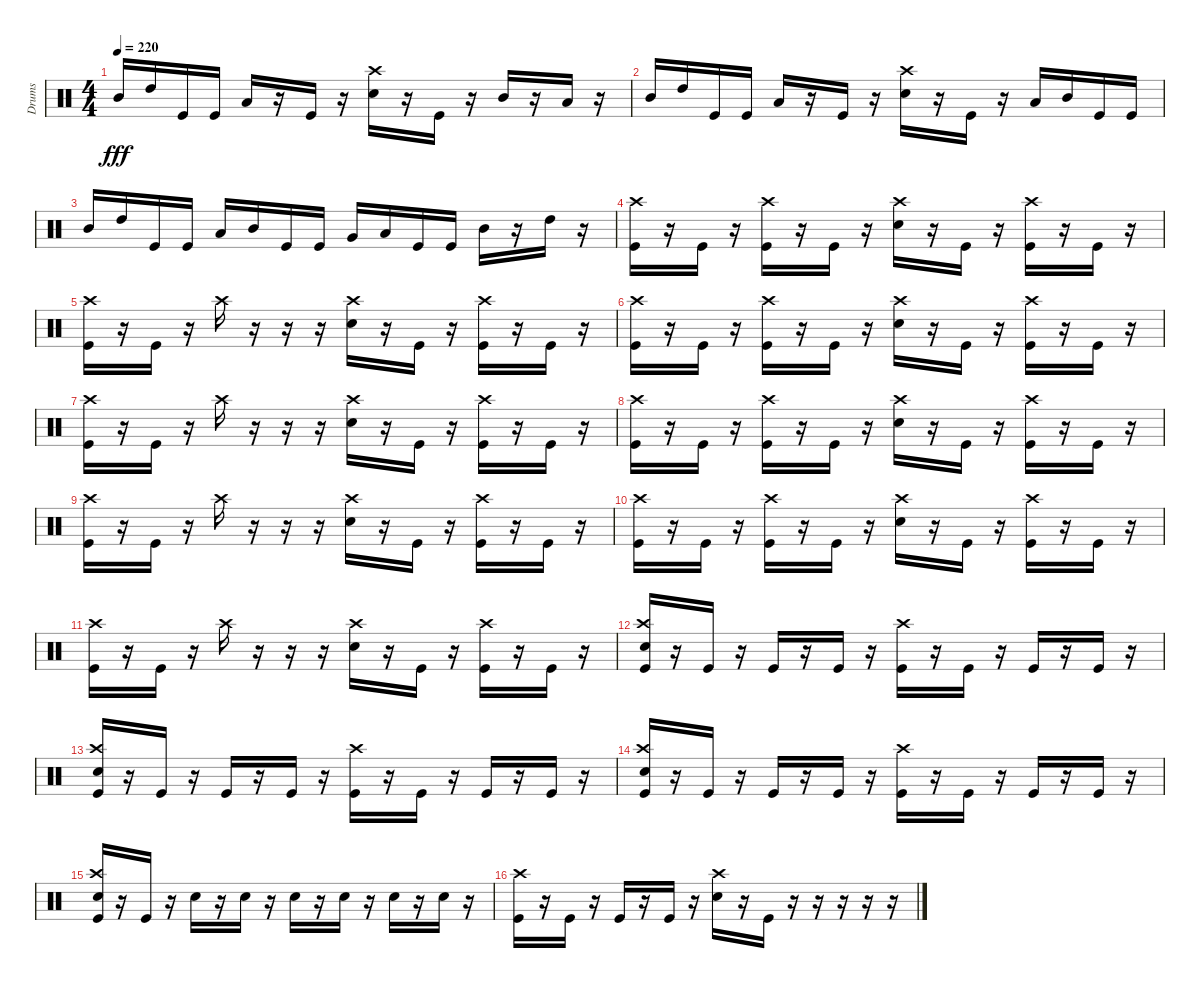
\track ("Drums" "Drums") {instrument percussion}
\staff {score}
\articulation defaults
\ts (4 4)
\tempo 220
\clef neutral
\ks c "Mid Tom (hit)".16{dy fff} "High Tom (hit)".16 "Kick (hit)".16 "Kick (hit)".16 "Low Tom (hit)".16
r.16 "Kick (hit)".16 r.16 ("Crash high (hit)" "Electric Snare (hit)").16 r.16 "Kick (hit)".16 r.16 "Mid Tom (hit)".16 r.16 "Low Tom (hit)".16 r.16 |
"Mid Tom (hit)".16 "High Tom (hit)".16 "Kick (hit)".16 "Kick (hit)".16 "Low Tom (hit)".16 r.16 "Kick (hit)".16 r.16 ("Crash high (hit)" "Electric Snare (hit)").16 r.16 "Kick (hit)".16 r.16 "Low Tom (hit)".16 "Mid Tom (hit)".16 "Kick (hit)".16 "Kick (hit)".16 |
"Mid Tom (hit)".16 "High Tom (hit)".16 "Kick (hit)".16 "Kick (hit)".16 "Low Tom (hit)".16 "Mid Tom (hit)".16 "Kick (hit)".16 "Kick (hit)".16 "Very Low Tom (hit)".16 "Low Tom (hit)".16 "Kick (hit)".16 "Kick (hit)".16 "Mid Tom (hit)".16 r.16 "High Tom (hit)".16 r.16 |
("Crash high (hit)" "Kick (hit)").16 r.16 "Kick (hit)".16 r.16 ("Crash high (hit)" "Kick (hit)").16 r.16 "Kick (hit)".16 r.16 ("Crash high (hit)" "Electric Snare (hit)").16 r.16 "Kick (hit)".16 r.16 ("Crash high (hit)" "Kick (hit)").16 r.16 "Kick (hit)".16 r.16 |
("Crash high (hit)" "Kick (hit)").16 r.16 "Kick (hit)".16 r.16 "Crash high (hit)".16 r.16 r.16 r.16 ("Crash high (hit)" "Electric Snare (hit)").16 r.16 "Kick (hit)".16 r.16 ("Crash high (hit)" "Kick (hit)").16 r.16 "Kick (hit)".16 r.16 |
("Crash high (hit)" "Kick (hit)").16 r.16 "Kick (hit)".16 r.16 ("Crash high (hit)" "Kick (hit)").16 r.16 "Kick (hit)".16 r.16 ("Crash high (hit)" "Electric Snare (hit)").16 r.16 "Kick (hit)".16 r.16 ("Crash high (hit)" "Kick (hit)").16 r.16 "Kick (hit)".16 r.16 |
("Crash high (hit)" "Kick (hit)").16 r.16 "Kick (hit)".16 r.16 "Crash high (hit)".16 r.16 r.16 r.16 ("Crash high (hit)" "Electric Snare (hit)").16 r.16 "Kick (hit)".16 r.16 ("Crash high (hit)" "Kick (hit)").16 r.16 "Kick (hit)".16 r.16 |
("Crash high (hit)" "Kick (hit)").16 r.16 "Kick (hit)".16 r.16 ("Crash high (hit)" "Kick (hit)").16 r.16 "Kick (hit)".16 r.16 ("Crash high (hit)" "Electric Snare (hit)").16 r.16 "Kick (hit)".16 r.16 ("Crash high (hit)" "Kick (hit)").16 r.16 "Kick (hit)".16 r.16 |
("Crash high (hit)" "Kick (hit)").16 r.16 "Kick (hit)".16 r.16 "Crash high (hit)".16 r.16 r.16 r.16 ("Crash high (hit)" "Electric Snare (hit)").16 r.16 "Kick (hit)".16 r.16 ("Crash high (hit)" "Kick (hit)").16 r.16 "Kick (hit)".16 r.16 |
("Crash high (hit)" "Kick (hit)").16 r.16 "Kick (hit)".16 r.16 ("Crash high (hit)" "Kick (hit)").16 r.16 "Kick (hit)".16 r.16 ("Crash high (hit)" "Electric Snare (hit)").16 r.16 "Kick (hit)".16 r.16 ("Crash high (hit)" "Kick (hit)").16 r.16 "Kick (hit)".16 r.16 |
("Crash high (hit)" "Kick (hit)").16 r.16 "Kick (hit)".16 r.16 "Crash high (hit)".16 r.16 r.16 r.16 ("Crash high (hit)" "Electric Snare (hit)").16 r.16 "Kick (hit)".16 r.16 ("Crash high (hit)" "Kick (hit)").16 r.16 "Kick (hit)".16 r.16 |
("Crash high (hit)" "Electric Snare (hit)" "Kick (hit)").16 r.16 "Kick (hit)".16 r.16 "Kick (hit)".16 r.16 "Kick (hit)".16 r.16 ("Crash high (hit)" "Kick (hit)").16 r.16 "Kick (hit)".16 r.16 "Kick (hit)".16 r.16 "Kick (hit)".16 r.16 |
("Crash high (hit)" "Electric Snare (hit)" "Kick (hit)").16 r.16 "Kick (hit)".16 r.16 "Kick (hit)".16 r.16 "Kick (hit)".16 r.16 ("Crash high (hit)" "Kick (hit)").16 r.16 "Kick (hit)".16 r.16 "Kick (hit)".16 r.16 "Kick (hit)".16 r.16 |
("Crash high (hit)" "Electric Snare (hit)" "Kick (hit)").16 r.16 "Kick (hit)".16 r.16 "Kick (hit)".16 r.16 "Kick (hit)".16 r.16 ("Crash high (hit)" "Kick (hit)").16 r.16 "Kick (hit)".16 r.16 "Kick (hit)".16 r.16 "Kick (hit)".16 r.16 |
("Crash high (hit)" "Electric Snare (hit)" "Kick (hit)").16 r.16 "Kick (hit)".16 r.16 "Electric Snare (hit)".16 r.16 "Electric Snare (hit)".16 r.16 "Electric Snare (hit)".16 r.16 "Electric Snare (hit)".16 r.16 "Electric Snare (hit)".16 r.16 "Electric Snare (hit)".16 r.16 |
("Crash high (hit)" "Kick (hit)").16 r.16 "Kick (hit)".16 r.16 "Kick (hit)".16 r.16 "Kick (hit)".16 r.16 ("Crash high (hit)" "Electric Snare (hit)").16 r.16 "Kick (hit)".16 r.16 r.16 r.16 r.16 r.16
